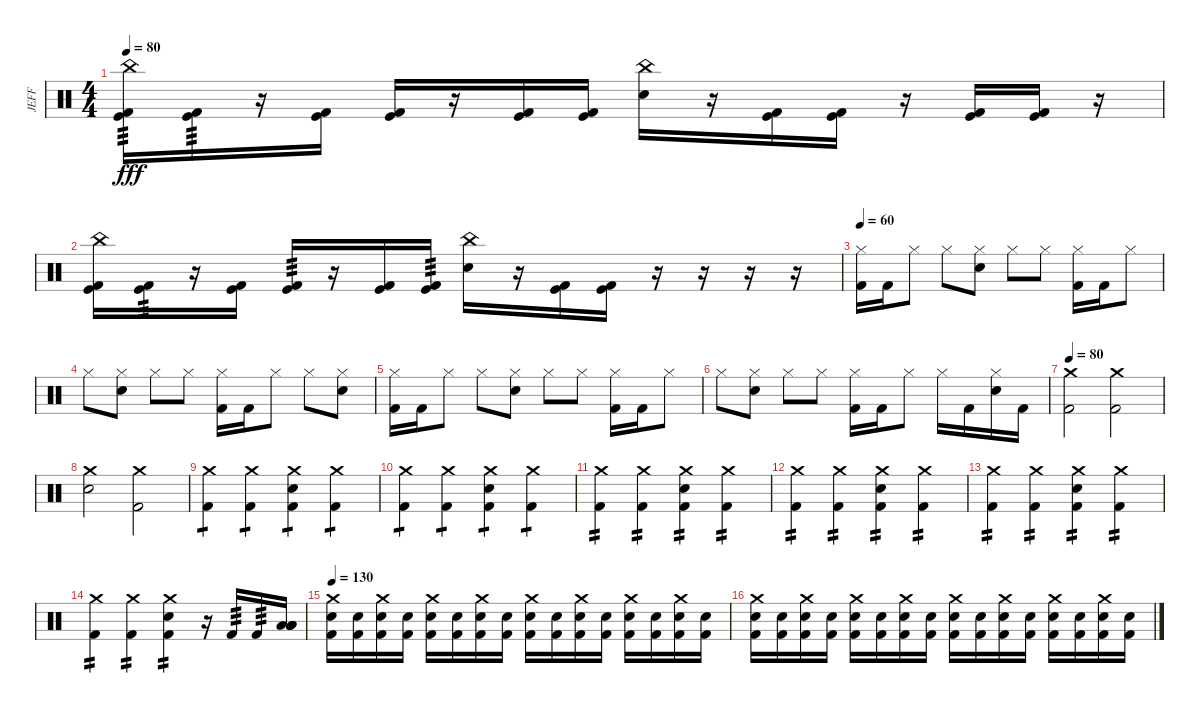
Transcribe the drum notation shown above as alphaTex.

\track ("JEFF" "JEFF") {instrument percussion}
\staff {score}
\articulation defaults
\ts (4 4)
\tempo 80
\clef neutral
\ks c
("China (hit)" "Kick (hit) 2" "Kick (hit)").16{tp 3 dy fff} ("Kick (hit) 2" "Kick (hit)").16{tp 3} r.16 ("Kick (hit)" "Kick (hit) 2").16 ("Kick (hit)" "Kick (hit) 2").16 r.16 ("Kick (hit)" "Kick (hit) 2").16 ("Kick (hit)" "Kick (hit) 2").16 ("China (hit)" "Electric Snare (hit)").16 r.16 ("Kick (hit)" "Kick (hit) 2").16 ("Kick (hit) 2" "Kick (hit)").16 r.16 ("Kick (hit) 2" "Kick (hit)").16 ("Kick (hit)" "Kick (hit) 2").16 r.16 |
("China (hit)" "Kick (hit) 2" "Kick (hit)").16 ("Kick (hit) 2" "Kick (hit)").16{tp 3} r.16 ("Kick (hit)" "Kick (hit) 2").16 ("Kick (hit)" "Kick (hit) 2").16{tp 3} r.16 ("Kick (hit)" "Kick (hit) 2").16 ("Kick (hit)" "Kick (hit) 2").16{tp 3} ("China (hit)" "Electric Snare (hit)").16 r.16 ("Kick (hit)" "Kick (hit) 2").16 ("Kick (hit) 2" "Kick (hit)").16 r.16 r.16 r.16 r.16 |
\tempo 60
("Hi-Hat (closed)" "Kick (hit) 2").16 "Kick (hit) 2".16 "Hi-Hat (closed)".8 "Hi-Hat (closed)".8 ("Hi-Hat (closed)" "Electric Snare (hit)").8 "Hi-Hat (closed)".8 "Hi-Hat (closed)".8 ("Hi-Hat (closed)" "Kick (hit) 2").16 "Kick (hit) 2".16 "Hi-Hat (closed)".8 |
"Hi-Hat (closed)".8 ("Hi-Hat (closed)" "Electric Snare (hit)").8 "Hi-Hat (closed)".8 "Hi-Hat (closed)".8 ("Hi-Hat (closed)" "Kick (hit) 2").16 "Kick (hit) 2".16 "Hi-Hat (closed)".8 "Hi-Hat (closed)".8 ("Hi-Hat (closed)" "Electric Snare (hit)").8 |
("Hi-Hat (closed)" "Kick (hit) 2").16 "Kick (hit) 2".16 "Hi-Hat (closed)".8 "Hi-Hat (closed)".8 ("Hi-Hat (closed)" "Electric Snare (hit)").8 "Hi-Hat (closed)".8 "Hi-Hat (closed)".8 ("Hi-Hat (closed)" "Kick (hit) 2").16 "Kick (hit) 2".16 "Hi-Hat (closed)".8 |
"Hi-Hat (closed)".8 ("Hi-Hat (closed)" "Electric Snare (hit)").8 "Hi-Hat (closed)".8 "Hi-Hat (closed)".8 ("Hi-Hat (closed)" "Kick (hit) 2").16 "Kick (hit) 2".16 "Hi-Hat (closed)".8 "Hi-Hat (closed)".16 "Kick (hit) 2".16 ("Hi-Hat (closed)" "Electric Snare (hit)").16 "Kick (hit) 2".16 |
\tempo 80
("Crash medium (hit)" "Kick (hit) 2").2 ("Crash medium (hit)" "Kick (hit) 2").2 |
("Crash medium (hit)" "Electric Snare (hit)").2 ("Crash medium (hit)" "Kick (hit) 2").2 |
("Crash medium (hit)" "Kick (hit) 2").4{tp 1} ("Crash medium (hit)" "Kick (hit) 2").4{tp 1} ("Crash medium (hit)" "Electric Snare (hit)" "Kick (hit) 2").4{tp 1} ("Crash medium (hit)" "Kick (hit) 2").4{tp 1} |
("Crash medium (hit)" "Kick (hit) 2").4{tp 1} ("Crash medium (hit)" "Kick (hit) 2").4{tp 1} ("Crash medium (hit)" "Electric Snare (hit)" "Kick (hit) 2").4{tp 1} ("Crash medium (hit)" "Kick (hit) 2").4{tp 1} |
("Crash medium (hit)" "Kick (hit) 2").4{tp 2} ("Crash medium (hit)" "Kick (hit) 2").4{tp 2} ("Crash medium (hit)" "Electric Snare (hit)" "Kick (hit) 2").4{tp 2} ("Crash medium (hit)" "Kick (hit) 2").4{tp 2} |
("Crash medium (hit)" "Kick (hit) 2").4{tp 2} ("Crash medium (hit)" "Kick (hit) 2").4{tp 2} ("Crash medium (hit)" "Electric Snare (hit)" "Kick (hit) 2").4{tp 2} ("Crash medium (hit)" "Kick (hit) 2").4{tp 2} |
("Crash medium (hit)" "Kick (hit) 2").4{tp 2} ("Crash medium (hit)" "Kick (hit) 2").4{tp 2} ("Crash medium (hit)" "Electric Snare (hit)" "Kick (hit) 2").4{tp 2} ("Crash medium (hit)" "Kick (hit) 2").4{tp 2} |
("Crash medium (hit)" "Kick (hit) 2").4{tp 2} ("Crash medium (hit)" "Kick (hit) 2").4{tp 2} ("Crash medium (hit)" "Electric Snare (hit)" "Kick (hit) 2").4{tp 2} r.16 "Kick (hit) 2".16{tp 3} "Kick (hit) 2".16{tp 3} ("Low Floor Tom (hit)" "Low Floor Tom (hit)" "Low Floor Tom (hit)" "Low Floor Tom (hit)").16 |
\tempo 130
("Crash medium (hit)" "Electric Snare (hit)" "Kick (hit) 2").16 ("Electric Snare (hit)" "Kick (hit) 2").16 ("Crash medium (hit)" "Electric Snare (hit)" "Kick (hit) 2").16 ("Electric Snare (hit)" "Kick (hit) 2").16 ("Crash medium (hit)" "Electric Snare (hit)" "Kick (hit) 2").16 ("Electric Snare (hit)" "Kick (hit) 2").16 ("Crash medium (hit)" "Electric Snare (hit)" "Kick (hit) 2").16 ("Electric Snare (hit)" "Kick (hit) 2").16 ("Crash medium (hit)" "Electric Snare (hit)" "Kick (hit) 2").16 ("Electric Snare (hit)" "Kick (hit) 2").16 ("Crash medium (hit)" "Electric Snare (hit)" "Kick (hit) 2").16 ("Electric Snare (hit)" "Kick (hit) 2").16 ("Crash medium (hit)" "Electric Snare (hit)" "Kick (hit) 2").16 ("Electric Snare (hit)" "Kick (hit) 2").16 ("Crash medium (hit)" "Electric Snare (hit)" "Kick (hit) 2").16 ("Electric Snare (hit)" "Kick (hit) 2").16 |
("Crash medium (hit)" "Electric Snare (hit)" "Kick (hit) 2").16 ("Electric Snare (hit)" "Kick (hit) 2").16 ("Crash medium (hit)" "Electric Snare (hit)" "Kick (hit) 2").16 ("Electric Snare (hit)" "Kick (hit) 2").16 ("Crash medium (hit)" "Electric Snare (hit)" "Kick (hit) 2").16 ("Electric Snare (hit)" "Kick (hit) 2").16 ("Crash medium (hit)" "Electric Snare (hit)" "Kick (hit) 2").16 ("Electric Snare (hit)" "Kick (hit) 2").16 ("Crash medium (hit)" "Electric Snare (hit)" "Kick (hit) 2").16 ("Electric Snare (hit)" "Kick (hit) 2").16 ("Crash medium (hit)" "Electric Snare (hit)" "Kick (hit) 2").16 ("Electric Snare (hit)" "Kick (hit) 2").16 ("Crash medium (hit)" "Electric Snare (hit)" "Kick (hit) 2").16 ("Electric Snare (hit)" "Kick (hit) 2").16 ("Crash medium (hit)" "Electric Snare (hit)" "Kick (hit) 2").16 ("Electric Snare (hit)" "Kick (hit) 2").16
